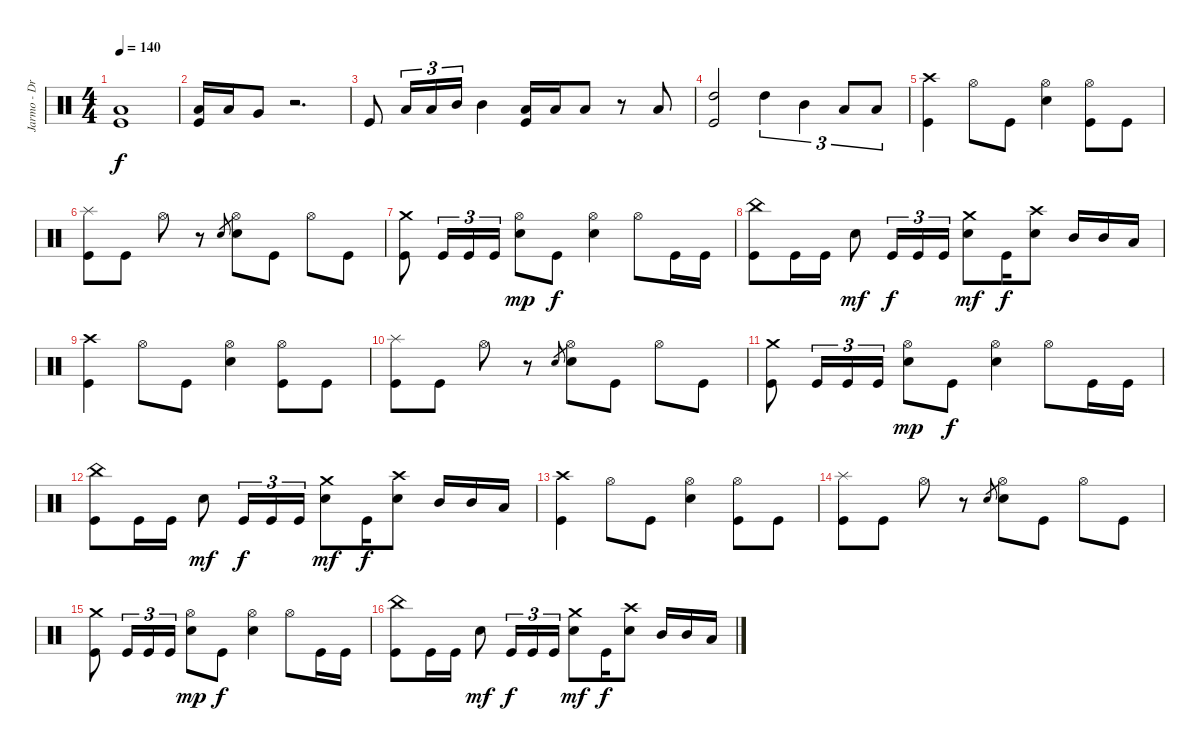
\track ("Jarmo - Drums" "Jarmo - Dr") {instrument percussion}
\staff {score}
\articulation defaults
\ts (4 4)
\tempo 140
\clef neutral
\ks c
("Kick (hit)" "Low Tom (hit)").1{dy f} |
("Kick (hit)" "Low Tom (hit)").16 "Low Tom (hit)".16 "Very Low Tom (hit)".8 r.2{d} |
"Kick (hit)".8 "Low Tom (hit)".16{tu (3 2)} "Low Tom (hit)".16{tu (3 2)} "Mid Tom (hit)".16{tu (3 2)} "Mid Tom (hit)".4 ("Kick (hit)" "Low Tom (hit)").16 "Low Tom (hit)".16 "Low Tom (hit)".8 r.8 "Low Tom (hit)".8 |
("Kick (hit)" "High Tom (hit)").2 "High Tom (hit)".4{tu (3 2)} "Mid Tom (hit)".4{tu (3 2)} "Low Tom (hit)".8{tu (3 2)} "Low Tom (hit)".8{tu (3 2)} |
("Kick (hit)" "Crash high (hit)").4 "Hi-Hat (open)".8 "Kick (hit)".8 ("Electric Snare (hit)" "Hi-Hat (open)").4 ("Kick (hit)" "Hi-Hat (open)").8 "Kick (hit)".8 |
("Kick (hit)" "Splash (hit)").8 "Kick (hit)".8 "Hi-Hat (open)".8 r.8 "Snare (hit) 2".8{gr} ("Electric Snare (hit)" "Hi-Hat (open)").8 "Kick (hit)".8 "Hi-Hat (open)".8 "Kick (hit)".8 |
("Kick (hit)" "Crash medium (hit)").8 "Kick (hit)".16{tu (3 2)} "Kick (hit)".16{tu (3 2)} "Kick (hit)".16{tu (3 2)} ("Electric Snare (hit)" "Hi-Hat (open)").8{dy mp} "Kick (hit)".8{dy f} ("Electric Snare (hit)" "Hi-Hat (open)").4 "Hi-Hat (open)".8 "Kick (hit)".16 "Kick (hit)".16 |
("Kick (hit)" "China (hit)").8 "Kick (hit)".16 "Kick (hit)".16 "Electric Snare (hit)".8{dy mf} "Kick (hit)".16{tu (3 2) dy f} "Kick (hit)".16{tu (3 2)} "Kick (hit)".16{tu (3 2)} ("Electric Snare (hit)" "Crash medium (hit)").8{dy mf} "Kick (hit)".16{dy f} ("Electric Snare (hit)" "Crash high (hit)").8 "Mid Tom (hit)".16 "Mid Tom (hit)".16 "Low Tom (hit)".16 |
("Kick (hit)" "Crash high (hit)").4 "Hi-Hat (open)".8 "Kick (hit)".8 ("Electric Snare (hit)" "Hi-Hat (open)").4 ("Kick (hit)" "Hi-Hat (open)").8 "Kick (hit)".8 |
("Kick (hit)" "Splash (hit)").8 "Kick (hit)".8 "Hi-Hat (open)".8 r.8 "Snare (hit) 2".8{gr} ("Electric Snare (hit)" "Hi-Hat (open)").8 "Kick (hit)".8 "Hi-Hat (open)".8 "Kick (hit)".8 |
("Kick (hit)" "Crash medium (hit)").8 "Kick (hit)".16{tu (3 2)} "Kick (hit)".16{tu (3 2)} "Kick (hit)".16{tu (3 2)} ("Electric Snare (hit)" "Hi-Hat (open)").8{dy mp} "Kick (hit)".8{dy f} ("Electric Snare (hit)" "Hi-Hat (open)").4 "Hi-Hat (open)".8 "Kick (hit)".16 "Kick (hit)".16 |
("Kick (hit)" "China (hit)").8 "Kick (hit)".16 "Kick (hit)".16 "Electric Snare (hit)".8{dy mf} "Kick (hit)".16{tu (3 2) dy f} "Kick (hit)".16{tu (3 2)} "Kick (hit)".16{tu (3 2)} ("Electric Snare (hit)" "Crash medium (hit)").8{dy mf} "Kick (hit)".16{dy f} ("Electric Snare (hit)" "Crash high (hit)").8 "Mid Tom (hit)".16 "Mid Tom (hit)".16 "Low Tom (hit)".16 |
("Kick (hit)" "Crash high (hit)").4 "Hi-Hat (open)".8 "Kick (hit)".8 ("Electric Snare (hit)" "Hi-Hat (open)").4 ("Kick (hit)" "Hi-Hat (open)").8 "Kick (hit)".8 |
("Kick (hit)" "Splash (hit)").8 "Kick (hit)".8 "Hi-Hat (open)".8 r.8 "Snare (hit) 2".8{gr} ("Electric Snare (hit)" "Hi-Hat (open)").8 "Kick (hit)".8 "Hi-Hat (open)".8 "Kick (hit)".8 |
("Kick (hit)" "Crash medium (hit)").8 "Kick (hit)".16{tu (3 2)} "Kick (hit)".16{tu (3 2)} "Kick (hit)".16{tu (3 2)} ("Electric Snare (hit)" "Hi-Hat (open)").8{dy mp} "Kick (hit)".8{dy f} ("Electric Snare (hit)" "Hi-Hat (open)").4 "Hi-Hat (open)".8 "Kick (hit)".16 "Kick (hit)".16 |
("Kick (hit)" "China (hit)").8 "Kick (hit)".16 "Kick (hit)".16 "Electric Snare (hit)".8{dy mf} "Kick (hit)".16{tu (3 2) dy f} "Kick (hit)".16{tu (3 2)} "Kick (hit)".16{tu (3 2)} ("Electric Snare (hit)" "Crash medium (hit)").8{dy mf} "Kick (hit)".16{dy f} ("Electric Snare (hit)" "Crash high (hit)").8 "Mid Tom (hit)".16 "Mid Tom (hit)".16 "Low Tom (hit)".16
